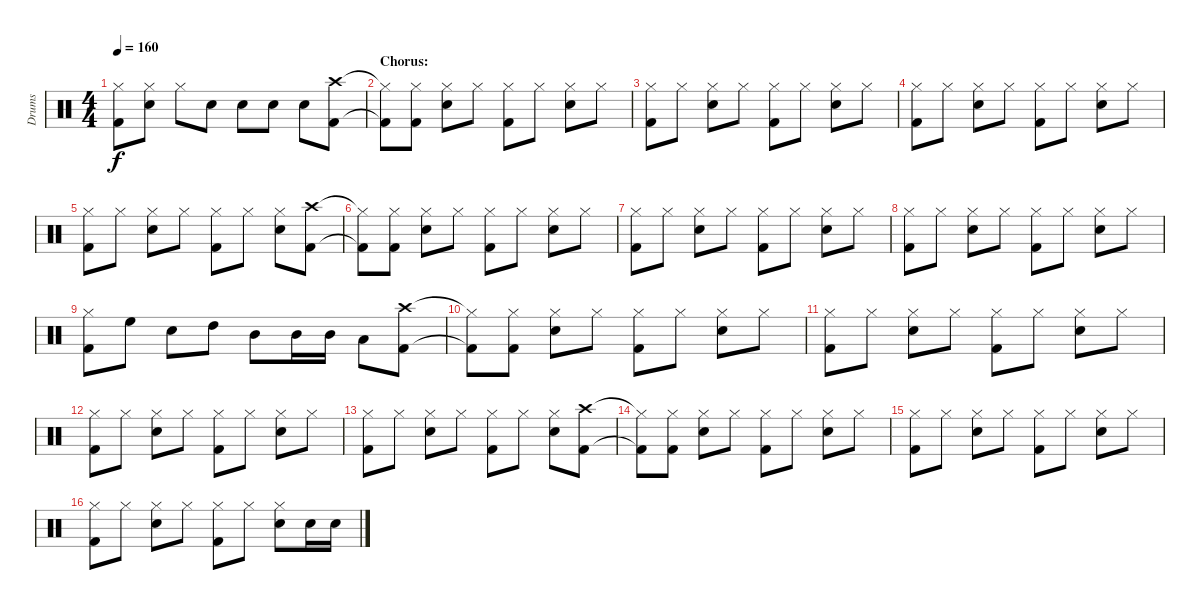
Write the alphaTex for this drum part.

\track ("Drums" "Drums") {instrument percussion}
\staff {score}
\articulation defaults
\ts (4 4)
\tempo 160
\clef neutral
\ks c
("Hi-Hat (closed)" "Kick (hit) 2").8{dy f} ("Hi-Hat (closed)" "Electric Snare (hit)").8 "Hi-Hat (closed)".8 "Electric Snare (hit)".8 "Electric Snare (hit)".8 "Electric Snare (hit)".8 "Electric Snare (hit)".8 ("Crash high (hit)" "Kick (hit) 2").8 |
\section ("" "Chorus:")
("Hi-Hat (closed)"{t} "Kick (hit) 2"{t}).8 ("Hi-Hat (closed)" "Kick (hit) 2").8 ("Hi-Hat (closed)" "Electric Snare (hit)").8 "Hi-Hat (closed)".8 ("Hi-Hat (closed)" "Kick (hit) 2").8 "Hi-Hat (closed)".8 ("Hi-Hat (closed)" "Electric Snare (hit)").8 "Hi-Hat (closed)".8 |
("Hi-Hat (closed)" "Kick (hit) 2").8 "Hi-Hat (closed)".8 ("Hi-Hat (closed)" "Electric Snare (hit)").8 "Hi-Hat (closed)".8 ("Hi-Hat (closed)" "Kick (hit) 2").8 "Hi-Hat (closed)".8 ("Hi-Hat (closed)" "Electric Snare (hit)").8 "Hi-Hat (closed)".8 |
("Hi-Hat (closed)" "Kick (hit) 2").8 "Hi-Hat (closed)".8 ("Hi-Hat (closed)" "Electric Snare (hit)").8 "Hi-Hat (closed)".8 ("Hi-Hat (closed)" "Kick (hit) 2").8 "Hi-Hat (closed)".8 ("Hi-Hat (closed)" "Electric Snare (hit)").8 "Hi-Hat (closed)".8 |
("Hi-Hat (closed)" "Kick (hit) 2").8 "Hi-Hat (closed)".8 ("Hi-Hat (closed)" "Electric Snare (hit)").8 "Hi-Hat (closed)".8 ("Hi-Hat (closed)" "Kick (hit) 2").8 "Hi-Hat (closed)".8 ("Hi-Hat (closed)" "Electric Snare (hit)").8 ("Crash high (hit)" "Kick (hit) 2").8 |
("Hi-Hat (closed)"{t} "Kick (hit) 2"{t}).8 ("Hi-Hat (closed)" "Kick (hit) 2").8 ("Hi-Hat (closed)" "Electric Snare (hit)").8 "Hi-Hat (closed)".8 ("Hi-Hat (closed)" "Kick (hit) 2").8 "Hi-Hat (closed)".8 ("Hi-Hat (closed)" "Electric Snare (hit)").8 "Hi-Hat (closed)".8 |
("Hi-Hat (closed)" "Kick (hit) 2").8 "Hi-Hat (closed)".8 ("Hi-Hat (closed)" "Electric Snare (hit)").8 "Hi-Hat (closed)".8 ("Hi-Hat (closed)" "Kick (hit) 2").8 "Hi-Hat (closed)".8 ("Hi-Hat (closed)" "Electric Snare (hit)").8 "Hi-Hat (closed)".8 |
("Hi-Hat (closed)" "Kick (hit) 2").8 "Hi-Hat (closed)".8 ("Hi-Hat (closed)" "Electric Snare (hit)").8 "Hi-Hat (closed)".8 ("Hi-Hat (closed)" "Kick (hit) 2").8 "Hi-Hat (closed)".8 ("Hi-Hat (closed)" "Electric Snare (hit)").8 "Hi-Hat (closed)".8 |
("Hi-Hat (closed)" "Kick (hit) 2").8 "High Floor Tom (hit)".8 "Electric Snare (hit)".8 "High Tom (hit)".8 "Mid Tom (hit)".8 "Mid Tom (hit)".16 "Mid Tom (hit)".16 "Low Tom (hit)".8 ("Crash high (hit)" "Kick (hit) 2").8 |
("Hi-Hat (closed)"{t} "Kick (hit) 2"{t}).8 ("Hi-Hat (closed)" "Kick (hit) 2").8 ("Hi-Hat (closed)" "Electric Snare (hit)").8 "Hi-Hat (closed)".8 ("Hi-Hat (closed)" "Kick (hit) 2").8 "Hi-Hat (closed)".8 ("Hi-Hat (closed)" "Electric Snare (hit)").8 "Hi-Hat (closed)".8 |
("Hi-Hat (closed)" "Kick (hit) 2").8 "Hi-Hat (closed)".8 ("Hi-Hat (closed)" "Electric Snare (hit)").8 "Hi-Hat (closed)".8 ("Hi-Hat (closed)" "Kick (hit) 2").8 "Hi-Hat (closed)".8 ("Hi-Hat (closed)" "Electric Snare (hit)").8 "Hi-Hat (closed)".8 |
("Hi-Hat (closed)" "Kick (hit) 2").8 "Hi-Hat (closed)".8 ("Hi-Hat (closed)" "Electric Snare (hit)").8 "Hi-Hat (closed)".8 ("Hi-Hat (closed)" "Kick (hit) 2").8 "Hi-Hat (closed)".8 ("Hi-Hat (closed)" "Electric Snare (hit)").8 "Hi-Hat (closed)".8 |
("Hi-Hat (closed)" "Kick (hit) 2").8 "Hi-Hat (closed)".8 ("Hi-Hat (closed)" "Electric Snare (hit)").8 "Hi-Hat (closed)".8 ("Hi-Hat (closed)" "Kick (hit) 2").8 "Hi-Hat (closed)".8 ("Hi-Hat (closed)" "Electric Snare (hit)").8 ("Crash high (hit)" "Kick (hit) 2").8 |
("Hi-Hat (closed)"{t} "Kick (hit) 2"{t}).8 ("Hi-Hat (closed)" "Kick (hit) 2").8 ("Hi-Hat (closed)" "Electric Snare (hit)").8 "Hi-Hat (closed)".8 ("Hi-Hat (closed)" "Kick (hit) 2").8 "Hi-Hat (closed)".8 ("Hi-Hat (closed)" "Electric Snare (hit)").8 "Hi-Hat (closed)".8 |
("Hi-Hat (closed)" "Kick (hit) 2").8 "Hi-Hat (closed)".8 ("Hi-Hat (closed)" "Electric Snare (hit)").8 "Hi-Hat (closed)".8 ("Hi-Hat (closed)" "Kick (hit) 2").8 "Hi-Hat (closed)".8 ("Hi-Hat (closed)" "Electric Snare (hit)").8 "Hi-Hat (closed)".8 |
("Hi-Hat (closed)" "Kick (hit) 2").8 "Hi-Hat (closed)".8 ("Hi-Hat (closed)" "Electric Snare (hit)").8 "Hi-Hat (closed)".8 ("Hi-Hat (closed)" "Kick (hit) 2").8 "Hi-Hat (closed)".8 ("Hi-Hat (closed)" "Electric Snare (hit)").8 "Electric Snare (hit)".16 "Electric Snare (hit)".16
